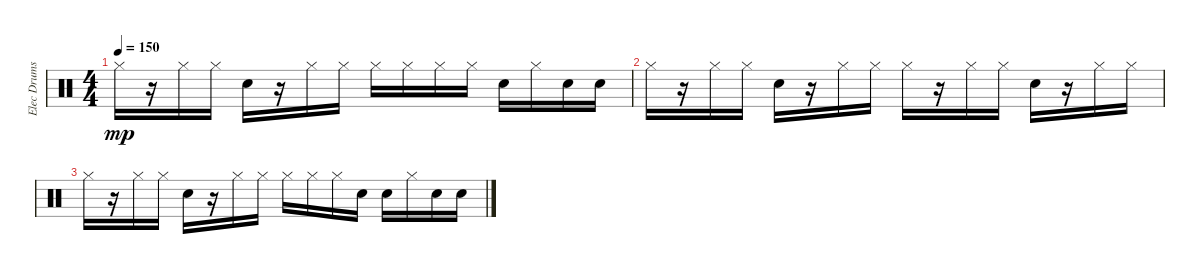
\track ("Elec Drums" "Elec Drums") {instrument percussion}
\staff {score}
\articulation defaults
\ts (4 4)
\tempo 150
\clef neutral
\ks c "Hi-Hat (closed)".16{dy mp}
r.16 "Hi-Hat (closed)".16 "Hi-Hat (closed)".16 "Electric Snare (hit)".16 r.16 "Hi-Hat (closed)".16 "Hi-Hat (closed)".16 "Hi-Hat (closed)".16 "Hi-Hat (closed)".16 "Hi-Hat (closed)".16 "Hi-Hat (closed)".16 "Electric Snare (hit)".16 "Hi-Hat (closed)".16 "Electric Snare (hit)".16 "Electric Snare (hit)".16 |
"Hi-Hat (closed)".16 r.16 "Hi-Hat (closed)".16 "Hi-Hat (closed)".16 "Electric Snare (hit)".16 r.16 "Hi-Hat (closed)".16 "Hi-Hat (closed)".16 "Hi-Hat (closed)".16 r.16 "Hi-Hat (closed)".16 "Hi-Hat (closed)".16 "Electric Snare (hit)".16 r.16 "Hi-Hat (closed)".16 "Hi-Hat (closed)".16 |
"Hi-Hat (closed)".16 r.16 "Hi-Hat (closed)".16 "Hi-Hat (closed)".16 "Electric Snare (hit)".16 r.16 "Hi-Hat (closed)".16 "Hi-Hat (closed)".16 "Hi-Hat (closed)".16 "Hi-Hat (closed)".16 "Hi-Hat (closed)".16 "Electric Snare (hit)".16 "Electric Snare (hit)".16 "Hi-Hat (closed)".16 "Electric Snare (hit)".16 "Electric Snare (hit)".16
